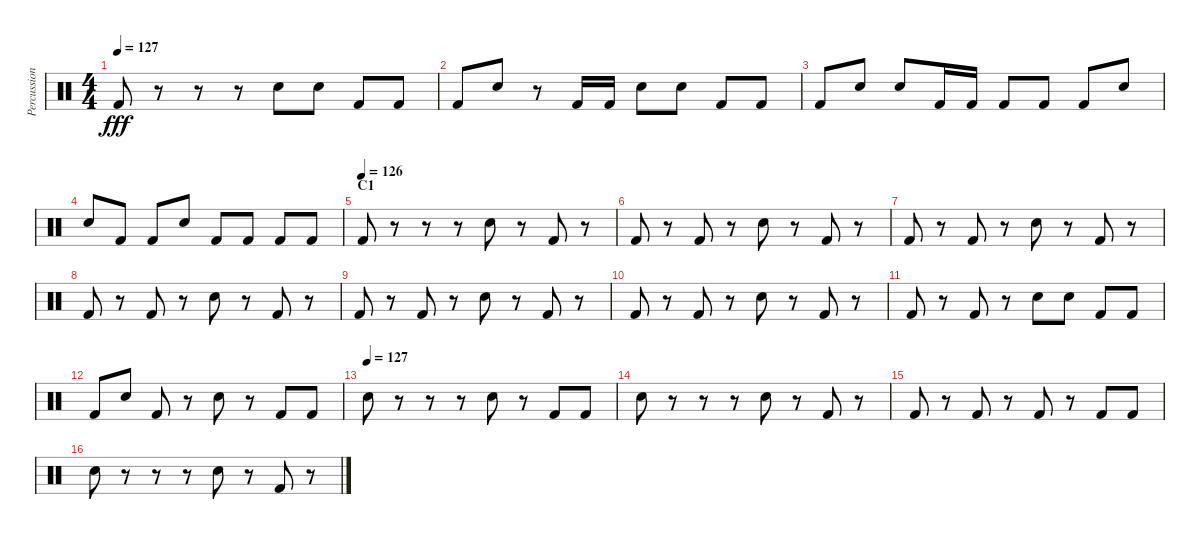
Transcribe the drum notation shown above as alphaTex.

\track ("Percussion" "Percussion") {instrument percussion}
\staff {score}
\articulation defaults
\ts (4 4)
\tempo 127
\clef neutral
\ks c "Kick (hit) 2".8{dy fff}
r.8 r.8 r.8 "Electric Snare (hit)".8 "Electric Snare (hit)".8 "Kick (hit) 2".8 "Kick (hit) 2".8 |
"Kick (hit) 2".8 "Electric Snare (hit)".8 r.8 "Kick (hit) 2".16 "Kick (hit) 2".16 "Electric Snare (hit)".8 "Electric Snare (hit)".8 "Kick (hit) 2".8 "Kick (hit) 2".8 |
"Kick (hit) 2".8 "Electric Snare (hit)".8 "Electric Snare (hit)".8 "Kick (hit) 2".16 "Kick (hit) 2".16 "Kick (hit) 2".8 "Kick (hit) 2".8 "Kick (hit) 2".8 "Electric Snare (hit)".8 |
"Electric Snare (hit)".8 "Kick (hit) 2".8 "Kick (hit) 2".8 "Electric Snare (hit)".8 "Kick (hit) 2".8 "Kick (hit) 2".8 "Kick (hit) 2".8 "Kick (hit) 2".8 |
\section ("" "C1")
\tempo (126)
"Kick (hit) 2".8 r.8 r.8 r.8 "Electric Snare (hit)".8 r.8 "Kick (hit) 2".8 r.8 |
"Kick (hit) 2".8 r.8 "Kick (hit) 2".8 r.8 "Electric Snare (hit)".8 r.8 "Kick (hit) 2".8 r.8 |
"Kick (hit) 2".8 r.8 "Kick (hit) 2".8 r.8 "Electric Snare (hit)".8 r.8 "Kick (hit) 2".8 r.8 |
"Kick (hit) 2".8 r.8 "Kick (hit) 2".8 r.8 "Electric Snare (hit)".8 r.8 "Kick (hit) 2".8 r.8 |
"Kick (hit) 2".8 r.8 "Kick (hit) 2".8 r.8 "Electric Snare (hit)".8 r.8 "Kick (hit) 2".8 r.8 |
"Kick (hit) 2".8 r.8 "Kick (hit) 2".8 r.8 "Electric Snare (hit)".8 r.8 "Kick (hit) 2".8 r.8 |
"Kick (hit) 2".8 r.8 "Kick (hit) 2".8 r.8 "Electric Snare (hit)".8 "Electric Snare (hit)".8 "Kick (hit) 2".8 "Kick (hit) 2".8 |
"Kick (hit) 2".8 "Electric Snare (hit)".8 "Kick (hit) 2".8 r.8 "Electric Snare (hit)".8 r.8 "Kick (hit) 2".8 "Kick (hit) 2".8 |
\tempo (127)
"Electric Snare (hit)".8 r.8 r.8 r.8 "Electric Snare (hit)".8 r.8 "Kick (hit) 2".8 "Kick (hit) 2".8 |
"Electric Snare (hit)".8 r.8 r.8 r.8 "Electric Snare (hit)".8 r.8 "Kick (hit) 2".8 r.8 |
"Kick (hit) 2".8 r.8 "Kick (hit) 2".8 r.8 "Kick (hit) 2".8 r.8 "Kick (hit) 2".8 "Kick (hit) 2".8 |
"Electric Snare (hit)".8 r.8 r.8 r.8 "Electric Snare (hit)".8 r.8 "Kick (hit) 2".8 r.8
